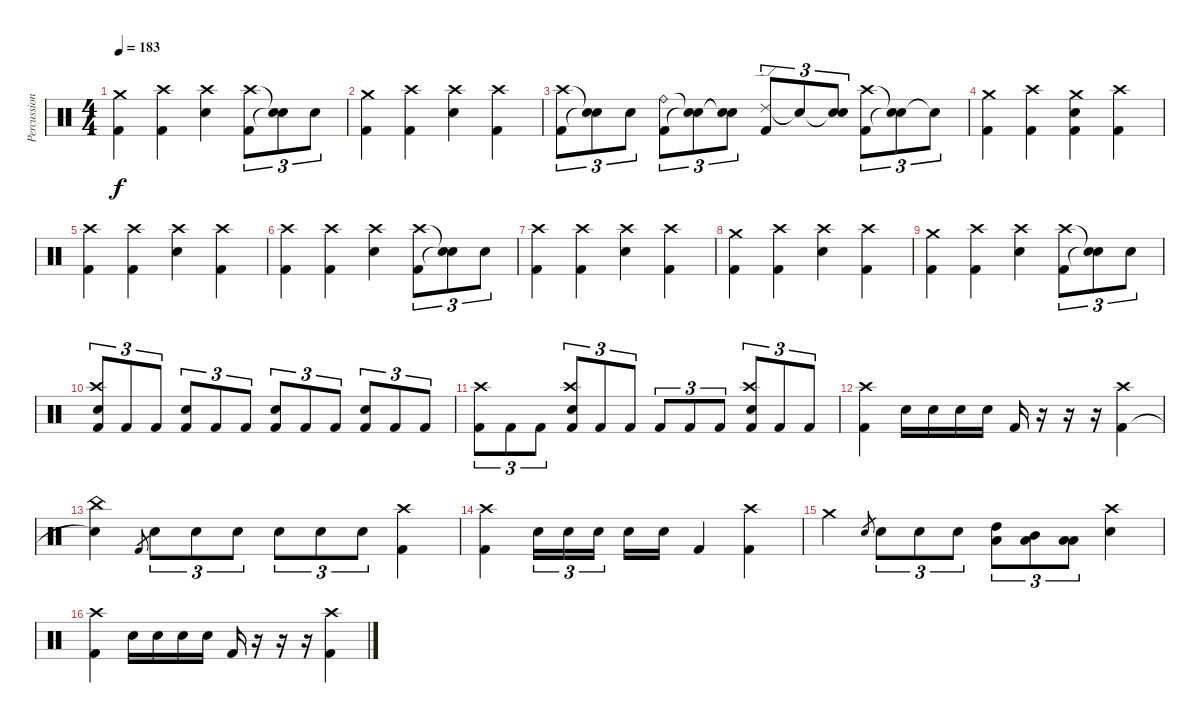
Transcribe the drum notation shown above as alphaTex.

\track ("Percussion" "Percussion") {instrument percussion}
\staff {score}
\articulation defaults
\ts (4 4)
\tempo 183
\clef neutral
\ks c
("Crash medium (hit)" "Kick (hit) 2").4{dy f} ("Crash high (hit)" "Kick (hit) 2").4 ("Crash high (hit)" "Electric Snare (hit)").4 ("Crash high (hit)" "Kick (hit) 2").8{tu (3 2)} ("Snare (hit)"{t} "Snare (hit)"{t}).8{tu (3 2)} "Electric Snare (hit)".8{tu (3 2)} |
("Crash medium (hit)" "Kick (hit) 2").4 ("Crash high (hit)" "Kick (hit) 2").4 ("Crash high (hit)" "Electric Snare (hit)").4 ("Crash high (hit)" "Kick (hit) 2").4 |
("Crash high (hit)" "Kick (hit) 2").8{tu (3 2)} ("Snare (hit)"{t} "Snare (hit)"{t}).8{tu (3 2)} "Electric Snare (hit)".8{tu (3 2)} ("Ride (bell)" "Kick (hit) 2").8{tu (3 2)} ("Snare (hit)"{t} "Snare (hit)"{t}).8{tu (3 2)} ("Snare (hit)"{t} "Snare (hit)"{t}).8{tu (3 2)} ("Ride (edge) 2" "Kick (hit) 2").8{tu (3 2)} "Snare (hit)"{t}.8{tu (3 2)} ("Snare (hit)"{t} "Electric Snare (hit)").8{tu (3 2)} ("Crash high (hit)" "Kick (hit) 2").8{tu (3 2)} ("Snare (hit)"{t} "Snare (hit)"{t}).8{tu (3 2)} "Snare (hit)"{t}.8{tu (3 2)} |
("Crash medium (hit)" "Kick (hit) 2").4 ("Crash high (hit)" "Kick (hit) 2").4 ("Crash medium (hit)" "Kick (hit) 2" "Electric Snare (hit)").4 ("Crash high (hit)" "Kick (hit) 2").4 |
("Crash high (hit)" "Kick (hit) 2").4 ("Crash high (hit)" "Kick (hit) 2").4 ("Crash high (hit)" "Electric Snare (hit)").4 ("Crash high (hit)" "Kick (hit) 2").4 |
("Crash high (hit)" "Kick (hit) 2").4 ("Crash high (hit)" "Kick (hit) 2").4 ("Crash high (hit)" "Electric Snare (hit)").4 ("Crash high (hit)" "Kick (hit) 2").8{tu (3 2)} ("Snare (hit)"{t} "Snare (hit)"{t}).8{tu (3 2)} "Electric Snare (hit)".8{tu (3 2)} |
("Crash high (hit)" "Kick (hit) 2").4 ("Crash high (hit)" "Kick (hit) 2").4 ("Crash high (hit)" "Electric Snare (hit)").4 ("Crash high (hit)" "Kick (hit) 2").4 |
("Crash medium (hit)" "Kick (hit) 2").4 ("Crash high (hit)" "Kick (hit) 2").4 ("Crash high (hit)" "Electric Snare (hit)").4 ("Crash high (hit)" "Kick (hit) 2").4 |
("Crash medium (hit)" "Kick (hit) 2").4 ("Crash high (hit)" "Kick (hit) 2").4 ("Crash high (hit)" "Electric Snare (hit)").4 ("Crash high (hit)" "Kick (hit) 2").8{tu (3 2)} ("Snare (hit)"{t} "Snare (hit)"{t}).8{tu (3 2)} "Electric Snare (hit)".8{tu (3 2)} |
("Crash high (hit)" "Electric Snare (hit)" "Kick (hit) 2").8{tu (3 2)} "Kick (hit) 2".8{tu (3 2)} "Kick (hit) 2".8{tu (3 2)} ("Electric Snare (hit)" "Kick (hit) 2").8{tu (3 2)} "Kick (hit) 2".8{tu (3 2)} "Kick (hit) 2".8{tu (3 2)} ("Electric Snare (hit)" "Kick (hit) 2").8{tu (3 2)} "Kick (hit) 2".8{tu (3 2)} "Kick (hit) 2".8{tu (3 2)} ("Electric Snare (hit)" "Kick (hit) 2").8{tu (3 2)} "Kick (hit) 2".8{tu (3 2)} "Kick (hit) 2".8{tu (3 2)} |
("Crash high (hit)" "Kick (hit) 2").8{tu (3 2)} "Kick (hit) 2".8{tu (3 2)} "Kick (hit) 2".8{tu (3 2)} ("Crash high (hit)" "Electric Snare (hit)" "Kick (hit) 2").8{tu (3 2)} "Kick (hit) 2".8{tu (3 2)} "Kick (hit) 2".8{tu (3 2)} "Kick (hit) 2".8{tu (3 2)} "Kick (hit) 2".8{tu (3 2)} "Kick (hit) 2".8{tu (3 2)} ("Crash high (hit)" "Electric Snare (hit)" "Kick (hit) 2").8{tu (3 2)} "Kick (hit) 2".8{tu (3 2)} "Kick (hit) 2".8{tu (3 2)} |
("Crash high (hit)" "Kick (hit) 2").4 "Electric Snare (hit)".16 "Electric Snare (hit)".16 "Electric Snare (hit)".16 "Electric Snare (hit)".16 "Kick (hit) 2".16 r.16 r.16 r.16 ("Crash high (hit)" "Kick (hit) 2").4 |
("China (hit)" "Snare (hit)"{t}).4 "Kick (hit) 2".8{gr} "Electric Snare (hit)".8{tu (3 2)} "Electric Snare (hit)".8{tu (3 2)} "Electric Snare (hit)".8{tu (3 2)} "Electric Snare (hit)".8{tu (3 2)} "Electric Snare (hit)".8{tu (3 2)} "Electric Snare (hit)".8{tu (3 2)} ("Crash high (hit)" "Kick (hit) 2").4 |
("Crash high (hit)" "Kick (hit) 2").4 "Electric Snare (hit)".16{tu (3 2)} "Electric Snare (hit)".16{tu (3 2)} "Electric Snare (hit)".16{tu (3 2)} "Electric Snare (hit)".16 "Electric Snare (hit)".16 "Kick (hit) 2".4 ("Crash high (hit)" "Kick (hit) 2").4 |
"Crash medium (hit)".4 "Electric Snare (hit)".8{gr} "Electric Snare (hit)".8{tu (3 2)} "Electric Snare (hit)".8{tu (3 2)} "Electric Snare (hit)".8{tu (3 2)} ("High Tom (hit)" "Low Floor Tom (hit)").8{tu (3 2)} ("Mid Tom (hit)" "Low Floor Tom (hit)").8{tu (3 2)} ("Low Tom (hit)" "Low Floor Tom (hit)").8{tu (3 2)} ("Crash high (hit)" "Electric Snare (hit)").4 |
("Crash high (hit)" "Kick (hit) 2").4 "Electric Snare (hit)".16 "Electric Snare (hit)".16 "Electric Snare (hit)".16 "Electric Snare (hit)".16 "Kick (hit) 2".16 r.16 r.16 r.16 ("Crash high (hit)" "Kick (hit) 2").4
